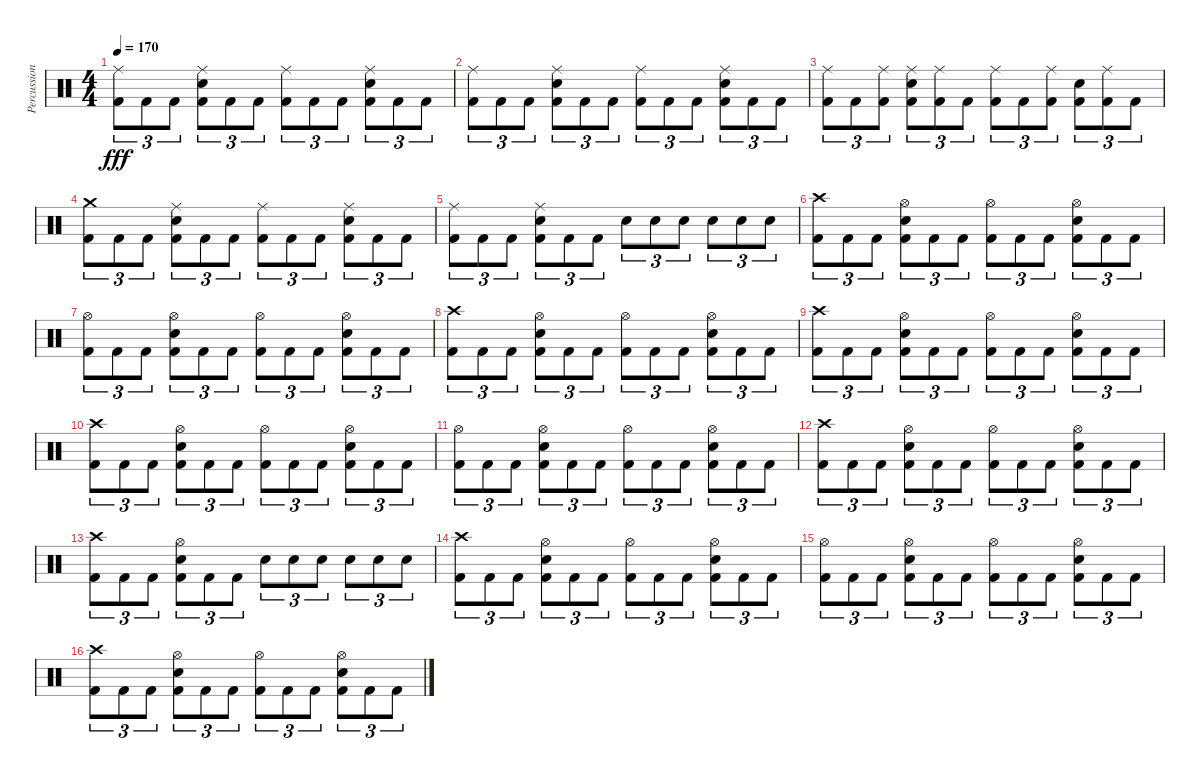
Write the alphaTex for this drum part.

\track ("Percussion" "Percussion") {instrument percussion}
\staff {score}
\articulation defaults
\ts (4 4)
\tempo 170
\clef neutral
\ks c
("Ride (middle)" "Kick (hit) 2").8{tu (3 2) dy fff} "Kick (hit) 2".8{tu (3 2)} "Kick (hit) 2".8{tu (3 2)} ("Ride (middle)" "Snare (hit) 2" "Kick (hit) 2").8{tu (3 2)} "Kick (hit) 2".8{tu (3 2)} "Kick (hit) 2".8{tu (3 2)} ("Ride (middle)" "Kick (hit) 2").8{tu (3 2)} "Kick (hit) 2".8{tu (3 2)} "Kick (hit) 2".8{tu (3 2)} ("Ride (middle)" "Snare (hit) 2" "Kick (hit) 2").8{tu (3 2)} "Kick (hit) 2".8{tu (3 2)} "Kick (hit) 2".8{tu (3 2)} |
("Ride (middle)" "Kick (hit) 2").8{tu (3 2)} "Kick (hit) 2".8{tu (3 2)} "Kick (hit) 2".8{tu (3 2)} ("Ride (middle)" "Snare (hit) 2" "Kick (hit) 2").8{tu (3 2)} "Kick (hit) 2".8{tu (3 2)} "Kick (hit) 2".8{tu (3 2)} ("Ride (middle)" "Kick (hit) 2").8{tu (3 2)} "Kick (hit) 2".8{tu (3 2)} "Kick (hit) 2".8{tu (3 2)} ("Ride (middle)" "Snare (hit) 2" "Kick (hit) 2").8{tu (3 2)} "Kick (hit) 2".8{tu (3 2)} "Kick (hit) 2".8{tu (3 2)} |
("Ride (middle)" "Kick (hit) 2").8{tu (3 2)} "Kick (hit) 2".8{tu (3 2)} ("Ride (middle)" "Kick (hit) 2").8{tu (3 2)} ("Ride (middle)" "Snare (hit) 2" "Kick (hit) 2").8{tu (3 2)} ("Ride (middle)" "Kick (hit) 2").8{tu (3 2)} "Kick (hit) 2".8{tu (3 2)} ("Ride (middle)" "Kick (hit) 2").8{tu (3 2)} "Kick (hit) 2".8{tu (3 2)} ("Ride (middle)" "Kick (hit) 2").8{tu (3 2)} ("Snare (hit) 2" "Kick (hit) 2").8{tu (3 2)} ("Ride (middle)" "Kick (hit) 2").8{tu (3 2)} "Kick (hit) 2".8{tu (3 2)} |
("Crash medium (hit)" "Kick (hit) 2").8{tu (3 2)} "Kick (hit) 2".8{tu (3 2)} "Kick (hit) 2".8{tu (3 2)} ("Ride (middle)" "Snare (hit) 2" "Kick (hit) 2").8{tu (3 2)} "Kick (hit) 2".8{tu (3 2)} "Kick (hit) 2".8{tu (3 2)} ("Ride (middle)" "Kick (hit) 2").8{tu (3 2)} "Kick (hit) 2".8{tu (3 2)} "Kick (hit) 2".8{tu (3 2)} ("Ride (middle)" "Snare (hit) 2" "Kick (hit) 2").8{tu (3 2)} "Kick (hit) 2".8{tu (3 2)} "Kick (hit) 2".8{tu (3 2)} |
("Ride (middle)" "Kick (hit) 2").8{tu (3 2)} "Kick (hit) 2".8{tu (3 2)} "Kick (hit) 2".8{tu (3 2)} ("Ride (middle)" "Snare (hit) 2" "Kick (hit) 2").8{tu (3 2)} "Kick (hit) 2".8{tu (3 2)} "Kick (hit) 2".8{tu (3 2)} "Electric Snare (hit)".8{tu (3 2)} "Electric Snare (hit)".8{tu (3 2)} "Electric Snare (hit)".8{tu (3 2)} "Electric Snare (hit)".8{tu (3 2)} "Electric Snare (hit)".8{tu (3 2)} "Electric Snare (hit)".8{tu (3 2)} |
("Crash high (hit)" "Kick (hit) 2").8{tu (3 2)} "Kick (hit) 2".8{tu (3 2)} "Kick (hit) 2".8{tu (3 2)} ("Hi-Hat (open)" "Snare (hit) 2" "Kick (hit) 2").8{tu (3 2)} "Kick (hit) 2".8{tu (3 2)} "Kick (hit) 2".8{tu (3 2)} ("Hi-Hat (open)" "Kick (hit) 2").8{tu (3 2)} "Kick (hit) 2".8{tu (3 2)} "Kick (hit) 2".8{tu (3 2)} ("Hi-Hat (open)" "Snare (hit) 2" "Kick (hit) 2").8{tu (3 2)} "Kick (hit) 2".8{tu (3 2)} "Kick (hit) 2".8{tu (3 2)} |
("Hi-Hat (open)" "Kick (hit) 2").8{tu (3 2)} "Kick (hit) 2".8{tu (3 2)} "Kick (hit) 2".8{tu (3 2)} ("Hi-Hat (open)" "Snare (hit) 2" "Kick (hit) 2").8{tu (3 2)} "Kick (hit) 2".8{tu (3 2)} "Kick (hit) 2".8{tu (3 2)} ("Hi-Hat (open)" "Kick (hit) 2").8{tu (3 2)} "Kick (hit) 2".8{tu (3 2)} "Kick (hit) 2".8{tu (3 2)} ("Hi-Hat (open)" "Snare (hit) 2" "Kick (hit) 2").8{tu (3 2)} "Kick (hit) 2".8{tu (3 2)} "Kick (hit) 2".8{tu (3 2)} |
("Crash high (hit)" "Kick (hit) 2").8{tu (3 2)} "Kick (hit) 2".8{tu (3 2)} "Kick (hit) 2".8{tu (3 2)} ("Hi-Hat (open)" "Snare (hit) 2" "Kick (hit) 2").8{tu (3 2)} "Kick (hit) 2".8{tu (3 2)} "Kick (hit) 2".8{tu (3 2)} ("Hi-Hat (open)" "Kick (hit) 2").8{tu (3 2)} "Kick (hit) 2".8{tu (3 2)} "Kick (hit) 2".8{tu (3 2)} ("Hi-Hat (open)" "Snare (hit) 2" "Kick (hit) 2").8{tu (3 2)} "Kick (hit) 2".8{tu (3 2)} "Kick (hit) 2".8{tu (3 2)} |
("Crash high (hit)" "Kick (hit) 2").8{tu (3 2)} "Kick (hit) 2".8{tu (3 2)} "Kick (hit) 2".8{tu (3 2)} ("Hi-Hat (open)" "Snare (hit) 2" "Kick (hit) 2").8{tu (3 2)} "Kick (hit) 2".8{tu (3 2)} "Kick (hit) 2".8{tu (3 2)} ("Hi-Hat (open)" "Kick (hit) 2").8{tu (3 2)} "Kick (hit) 2".8{tu (3 2)} "Kick (hit) 2".8{tu (3 2)} ("Hi-Hat (open)" "Snare (hit) 2" "Kick (hit) 2").8{tu (3 2)} "Kick (hit) 2".8{tu (3 2)} "Kick (hit) 2".8{tu (3 2)} |
("Crash high (hit)" "Kick (hit) 2").8{tu (3 2)} "Kick (hit) 2".8{tu (3 2)} "Kick (hit) 2".8{tu (3 2)} ("Hi-Hat (open)" "Snare (hit) 2" "Kick (hit) 2").8{tu (3 2)} "Kick (hit) 2".8{tu (3 2)} "Kick (hit) 2".8{tu (3 2)} ("Hi-Hat (open)" "Kick (hit) 2").8{tu (3 2)} "Kick (hit) 2".8{tu (3 2)} "Kick (hit) 2".8{tu (3 2)} ("Hi-Hat (open)" "Snare (hit) 2" "Kick (hit) 2").8{tu (3 2)} "Kick (hit) 2".8{tu (3 2)} "Kick (hit) 2".8{tu (3 2)} |
("Hi-Hat (open)" "Kick (hit) 2").8{tu (3 2)} "Kick (hit) 2".8{tu (3 2)} "Kick (hit) 2".8{tu (3 2)} ("Hi-Hat (open)" "Snare (hit) 2" "Kick (hit) 2").8{tu (3 2)} "Kick (hit) 2".8{tu (3 2)} "Kick (hit) 2".8{tu (3 2)} ("Hi-Hat (open)" "Kick (hit) 2").8{tu (3 2)} "Kick (hit) 2".8{tu (3 2)} "Kick (hit) 2".8{tu (3 2)} ("Hi-Hat (open)" "Snare (hit) 2" "Kick (hit) 2").8{tu (3 2)} "Kick (hit) 2".8{tu (3 2)} "Kick (hit) 2".8{tu (3 2)} |
("Crash high (hit)" "Kick (hit) 2").8{tu (3 2)} "Kick (hit) 2".8{tu (3 2)} "Kick (hit) 2".8{tu (3 2)} ("Hi-Hat (open)" "Snare (hit) 2" "Kick (hit) 2").8{tu (3 2)} "Kick (hit) 2".8{tu (3 2)} "Kick (hit) 2".8{tu (3 2)} ("Hi-Hat (open)" "Kick (hit) 2").8{tu (3 2)} "Kick (hit) 2".8{tu (3 2)} "Kick (hit) 2".8{tu (3 2)} ("Hi-Hat (open)" "Snare (hit) 2" "Kick (hit) 2").8{tu (3 2)} "Kick (hit) 2".8{tu (3 2)} "Kick (hit) 2".8{tu (3 2)} |
("Crash high (hit)" "Kick (hit) 2").8{tu (3 2)} "Kick (hit) 2".8{tu (3 2)} "Kick (hit) 2".8{tu (3 2)} ("Hi-Hat (open)" "Snare (hit) 2" "Kick (hit) 2").8{tu (3 2)} "Kick (hit) 2".8{tu (3 2)} "Kick (hit) 2".8{tu (3 2)} "Electric Snare (hit)".8{tu (3 2)} "Electric Snare (hit)".8{tu (3 2)} "Electric Snare (hit)".8{tu (3 2)} "Electric Snare (hit)".8{tu (3 2)} "Electric Snare (hit)".8{tu (3 2)} "Electric Snare (hit)".8{tu (3 2)} |
("Crash high (hit)" "Kick (hit) 2").8{tu (3 2)} "Kick (hit) 2".8{tu (3 2)} "Kick (hit) 2".8{tu (3 2)} ("Hi-Hat (open)" "Snare (hit) 2" "Kick (hit) 2").8{tu (3 2)} "Kick (hit) 2".8{tu (3 2)} "Kick (hit) 2".8{tu (3 2)} ("Hi-Hat (open)" "Kick (hit) 2").8{tu (3 2)} "Kick (hit) 2".8{tu (3 2)} "Kick (hit) 2".8{tu (3 2)} ("Hi-Hat (open)" "Snare (hit) 2" "Kick (hit) 2").8{tu (3 2)} "Kick (hit) 2".8{tu (3 2)} "Kick (hit) 2".8{tu (3 2)} |
("Hi-Hat (open)" "Kick (hit) 2").8{tu (3 2)} "Kick (hit) 2".8{tu (3 2)} "Kick (hit) 2".8{tu (3 2)} ("Hi-Hat (open)" "Snare (hit) 2" "Kick (hit) 2").8{tu (3 2)} "Kick (hit) 2".8{tu (3 2)} "Kick (hit) 2".8{tu (3 2)} ("Hi-Hat (open)" "Kick (hit) 2").8{tu (3 2)} "Kick (hit) 2".8{tu (3 2)} "Kick (hit) 2".8{tu (3 2)} ("Hi-Hat (open)" "Snare (hit) 2" "Kick (hit) 2").8{tu (3 2)} "Kick (hit) 2".8{tu (3 2)} "Kick (hit) 2".8{tu (3 2)} |
("Crash high (hit)" "Kick (hit) 2").8{tu (3 2)} "Kick (hit) 2".8{tu (3 2)} "Kick (hit) 2".8{tu (3 2)} ("Hi-Hat (open)" "Snare (hit) 2" "Kick (hit) 2").8{tu (3 2)} "Kick (hit) 2".8{tu (3 2)} "Kick (hit) 2".8{tu (3 2)} ("Hi-Hat (open)" "Kick (hit) 2").8{tu (3 2)} "Kick (hit) 2".8{tu (3 2)} "Kick (hit) 2".8{tu (3 2)} ("Hi-Hat (open)" "Snare (hit) 2" "Kick (hit) 2").8{tu (3 2)} "Kick (hit) 2".8{tu (3 2)} "Kick (hit) 2".8{tu (3 2)}
